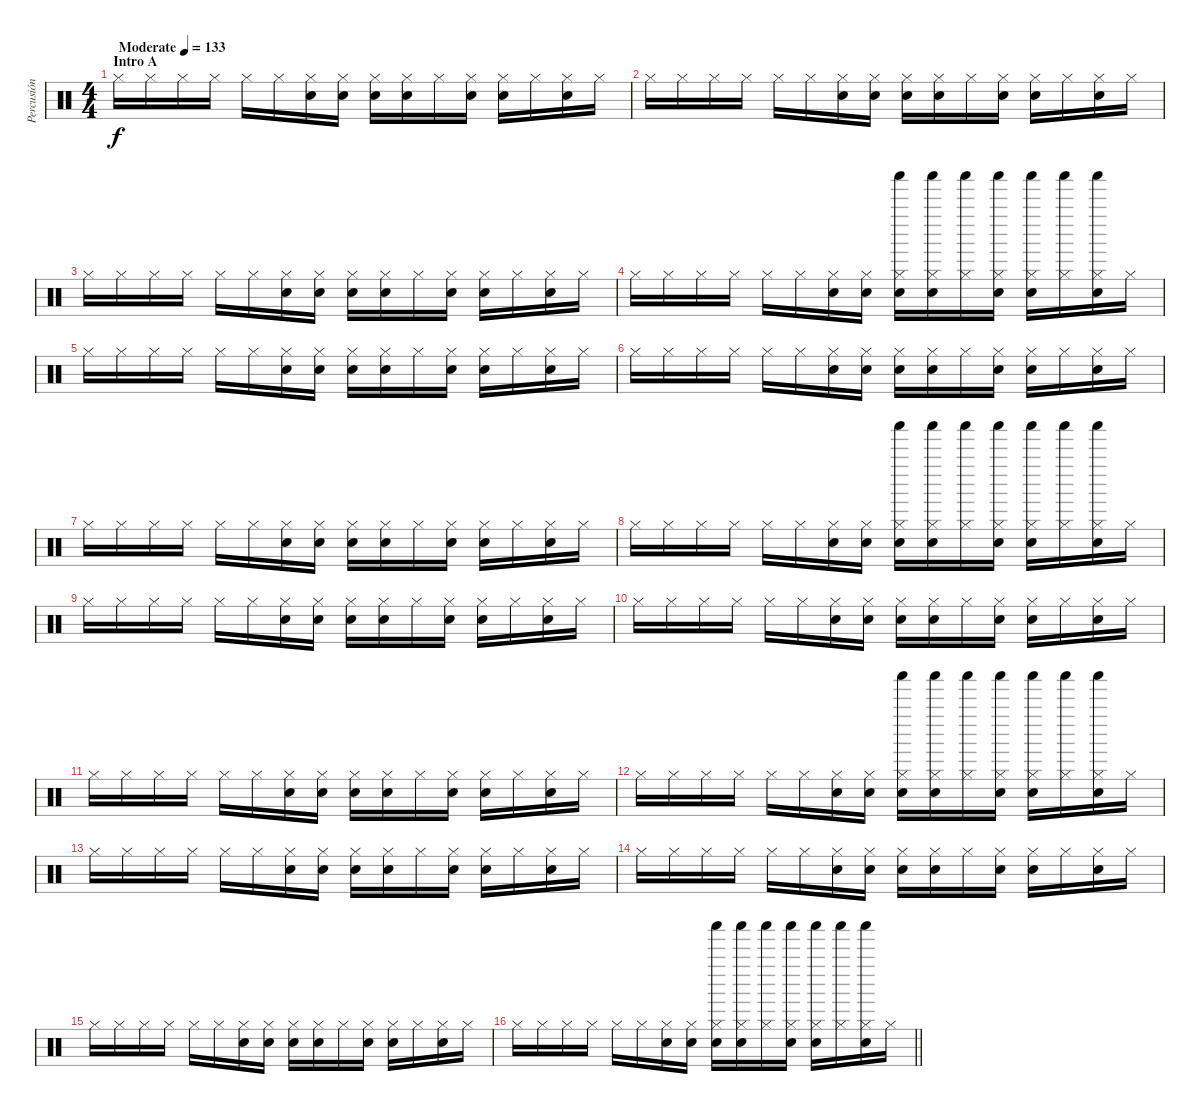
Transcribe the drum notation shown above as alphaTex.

\track ("Percusión" "Percusión") {instrument percussion}
\staff {score}
\articulation defaults
\ts (4 4)
\section ("" "Intro A")
\tempo (133 "Moderate")
\clef neutral
\ks c "Hi-Hat (closed)".16{dy f} "Hi-Hat (closed)".16 "Hi-Hat (closed)".16 "Hi-Hat (closed)".16 "Hi-Hat (closed)".16 "Hi-Hat (closed)".16
("Hi-Hat (closed)" "Electric Snare (hit)").16 ("Hi-Hat (closed)" "Electric Snare (hit)").16 ("Hi-Hat (closed)" "Electric Snare (hit)").16 ("Hi-Hat (closed)" "Electric Snare (hit)").16 "Hi-Hat (closed)".16 ("Hi-Hat (closed)" "Electric Snare (hit)").16 ("Hi-Hat (closed)" "Electric Snare (hit)").16 "Hi-Hat (closed)".16 ("Hi-Hat (closed)" "Electric Snare (hit)").16 "Hi-Hat (closed)".16 |
"Hi-Hat (closed)".16 "Hi-Hat (closed)".16 "Hi-Hat (closed)".16 "Hi-Hat (closed)".16 "Hi-Hat (closed)".16 "Hi-Hat (closed)".16 ("Hi-Hat (closed)" "Electric Snare (hit)").16 ("Hi-Hat (closed)" "Electric Snare (hit)").16 ("Hi-Hat (closed)" "Electric Snare (hit)").16 ("Hi-Hat (closed)" "Electric Snare (hit)").16 "Hi-Hat (closed)".16 ("Hi-Hat (closed)" "Electric Snare (hit)").16 ("Hi-Hat (closed)" "Electric Snare (hit)").16 "Hi-Hat (closed)".16 ("Hi-Hat (closed)" "Electric Snare (hit)").16 "Hi-Hat (closed)".16 |
"Hi-Hat (closed)".16 "Hi-Hat (closed)".16 "Hi-Hat (closed)".16 "Hi-Hat (closed)".16 "Hi-Hat (closed)".16 "Hi-Hat (closed)".16 ("Hi-Hat (closed)" "Electric Snare (hit)").16 ("Hi-Hat (closed)" "Electric Snare (hit)").16 ("Hi-Hat (closed)" "Electric Snare (hit)").16 ("Hi-Hat (closed)" "Electric Snare (hit)").16 "Hi-Hat (closed)".16 ("Hi-Hat (closed)" "Electric Snare (hit)").16 ("Hi-Hat (closed)" "Electric Snare (hit)").16 "Hi-Hat (closed)".16 ("Hi-Hat (closed)" "Electric Snare (hit)").16 "Hi-Hat (closed)".16 |
"Hi-Hat (closed)".16 "Hi-Hat (closed)".16 "Hi-Hat (closed)".16 "Hi-Hat (closed)".16 "Hi-Hat (closed)".16 "Hi-Hat (closed)".16 ("Hi-Hat (closed)" "Electric Snare (hit)").16 ("Hi-Hat (closed)" "Electric Snare (hit)").16 ("Hi-Hat (closed)" "Shaker (hit)" "Electric Snare (hit)").16 ("Hi-Hat (closed)" "Shaker (hit)" "Electric Snare (hit)").16 ("Hi-Hat (closed)" "Shaker (hit)").16 ("Hi-Hat (closed)" "Shaker (hit)" "Electric Snare (hit)").16 ("Hi-Hat (closed)" "Shaker (hit)" "Electric Snare (hit)").16 ("Hi-Hat (closed)" "Shaker (hit)").16 ("Hi-Hat (closed)" "Shaker (hit)" "Electric Snare (hit)").16 "Hi-Hat (closed)".16 |
"Hi-Hat (closed)".16 "Hi-Hat (closed)".16 "Hi-Hat (closed)".16 "Hi-Hat (closed)".16 "Hi-Hat (closed)".16 "Hi-Hat (closed)".16 ("Hi-Hat (closed)" "Electric Snare (hit)").16 ("Hi-Hat (closed)" "Electric Snare (hit)").16 ("Hi-Hat (closed)" "Electric Snare (hit)").16 ("Hi-Hat (closed)" "Electric Snare (hit)").16 "Hi-Hat (closed)".16 ("Hi-Hat (closed)" "Electric Snare (hit)").16 ("Hi-Hat (closed)" "Electric Snare (hit)").16 "Hi-Hat (closed)".16 ("Hi-Hat (closed)" "Electric Snare (hit)").16 "Hi-Hat (closed)".16 |
"Hi-Hat (closed)".16 "Hi-Hat (closed)".16 "Hi-Hat (closed)".16 "Hi-Hat (closed)".16 "Hi-Hat (closed)".16 "Hi-Hat (closed)".16 ("Hi-Hat (closed)" "Electric Snare (hit)").16 ("Hi-Hat (closed)" "Electric Snare (hit)").16 ("Hi-Hat (closed)" "Electric Snare (hit)").16 ("Hi-Hat (closed)" "Electric Snare (hit)").16 "Hi-Hat (closed)".16 ("Hi-Hat (closed)" "Electric Snare (hit)").16 ("Hi-Hat (closed)" "Electric Snare (hit)").16 "Hi-Hat (closed)".16 ("Hi-Hat (closed)" "Electric Snare (hit)").16 "Hi-Hat (closed)".16 |
"Hi-Hat (closed)".16 "Hi-Hat (closed)".16 "Hi-Hat (closed)".16 "Hi-Hat (closed)".16 "Hi-Hat (closed)".16 "Hi-Hat (closed)".16 ("Hi-Hat (closed)" "Electric Snare (hit)").16 ("Hi-Hat (closed)" "Electric Snare (hit)").16 ("Hi-Hat (closed)" "Electric Snare (hit)").16 ("Hi-Hat (closed)" "Electric Snare (hit)").16 "Hi-Hat (closed)".16 ("Hi-Hat (closed)" "Electric Snare (hit)").16 ("Hi-Hat (closed)" "Electric Snare (hit)").16 "Hi-Hat (closed)".16 ("Hi-Hat (closed)" "Electric Snare (hit)").16 "Hi-Hat (closed)".16 |
"Hi-Hat (closed)".16 "Hi-Hat (closed)".16 "Hi-Hat (closed)".16 "Hi-Hat (closed)".16 "Hi-Hat (closed)".16 "Hi-Hat (closed)".16 ("Hi-Hat (closed)" "Electric Snare (hit)").16 ("Hi-Hat (closed)" "Electric Snare (hit)").16 ("Hi-Hat (closed)" "Shaker (hit)" "Electric Snare (hit)").16 ("Hi-Hat (closed)" "Shaker (hit)" "Electric Snare (hit)").16 ("Hi-Hat (closed)" "Shaker (hit)").16 ("Hi-Hat (closed)" "Shaker (hit)" "Electric Snare (hit)").16 ("Hi-Hat (closed)" "Shaker (hit)" "Electric Snare (hit)").16 ("Hi-Hat (closed)" "Shaker (hit)").16 ("Hi-Hat (closed)" "Shaker (hit)" "Electric Snare (hit)").16 "Hi-Hat (closed)".16 |
"Hi-Hat (closed)".16 "Hi-Hat (closed)".16 "Hi-Hat (closed)".16 "Hi-Hat (closed)".16 "Hi-Hat (closed)".16 "Hi-Hat (closed)".16 ("Hi-Hat (closed)" "Electric Snare (hit)").16 ("Hi-Hat (closed)" "Electric Snare (hit)").16 ("Hi-Hat (closed)" "Electric Snare (hit)").16 ("Hi-Hat (closed)" "Electric Snare (hit)").16 "Hi-Hat (closed)".16 ("Hi-Hat (closed)" "Electric Snare (hit)").16 ("Hi-Hat (closed)" "Electric Snare (hit)").16 "Hi-Hat (closed)".16 ("Hi-Hat (closed)" "Electric Snare (hit)").16 "Hi-Hat (closed)".16 |
"Hi-Hat (closed)".16 "Hi-Hat (closed)".16 "Hi-Hat (closed)".16 "Hi-Hat (closed)".16 "Hi-Hat (closed)".16 "Hi-Hat (closed)".16 ("Hi-Hat (closed)" "Electric Snare (hit)").16 ("Hi-Hat (closed)" "Electric Snare (hit)").16 ("Hi-Hat (closed)" "Electric Snare (hit)").16 ("Hi-Hat (closed)" "Electric Snare (hit)").16 "Hi-Hat (closed)".16 ("Hi-Hat (closed)" "Electric Snare (hit)").16 ("Hi-Hat (closed)" "Electric Snare (hit)").16 "Hi-Hat (closed)".16 ("Hi-Hat (closed)" "Electric Snare (hit)").16 "Hi-Hat (closed)".16 |
"Hi-Hat (closed)".16 "Hi-Hat (closed)".16 "Hi-Hat (closed)".16 "Hi-Hat (closed)".16 "Hi-Hat (closed)".16 "Hi-Hat (closed)".16 ("Hi-Hat (closed)" "Electric Snare (hit)").16 ("Hi-Hat (closed)" "Electric Snare (hit)").16 ("Hi-Hat (closed)" "Electric Snare (hit)").16 ("Hi-Hat (closed)" "Electric Snare (hit)").16 "Hi-Hat (closed)".16 ("Hi-Hat (closed)" "Electric Snare (hit)").16 ("Hi-Hat (closed)" "Electric Snare (hit)").16 "Hi-Hat (closed)".16 ("Hi-Hat (closed)" "Electric Snare (hit)").16 "Hi-Hat (closed)".16 |
"Hi-Hat (closed)".16 "Hi-Hat (closed)".16 "Hi-Hat (closed)".16 "Hi-Hat (closed)".16 "Hi-Hat (closed)".16 "Hi-Hat (closed)".16 ("Hi-Hat (closed)" "Electric Snare (hit)").16 ("Hi-Hat (closed)" "Electric Snare (hit)").16 ("Hi-Hat (closed)" "Shaker (hit)" "Electric Snare (hit)").16 ("Hi-Hat (closed)" "Shaker (hit)" "Electric Snare (hit)").16 ("Hi-Hat (closed)" "Shaker (hit)").16 ("Hi-Hat (closed)" "Shaker (hit)" "Electric Snare (hit)").16 ("Hi-Hat (closed)" "Shaker (hit)" "Electric Snare (hit)").16 ("Hi-Hat (closed)" "Shaker (hit)").16 ("Hi-Hat (closed)" "Shaker (hit)" "Electric Snare (hit)").16 "Hi-Hat (closed)".16 |
"Hi-Hat (closed)".16 "Hi-Hat (closed)".16 "Hi-Hat (closed)".16 "Hi-Hat (closed)".16 "Hi-Hat (closed)".16 "Hi-Hat (closed)".16 ("Hi-Hat (closed)" "Electric Snare (hit)").16 ("Hi-Hat (closed)" "Electric Snare (hit)").16 ("Hi-Hat (closed)" "Electric Snare (hit)").16 ("Hi-Hat (closed)" "Electric Snare (hit)").16 "Hi-Hat (closed)".16 ("Hi-Hat (closed)" "Electric Snare (hit)").16 ("Hi-Hat (closed)" "Electric Snare (hit)").16 "Hi-Hat (closed)".16 ("Hi-Hat (closed)" "Electric Snare (hit)").16 "Hi-Hat (closed)".16 |
"Hi-Hat (closed)".16 "Hi-Hat (closed)".16 "Hi-Hat (closed)".16 "Hi-Hat (closed)".16 "Hi-Hat (closed)".16 "Hi-Hat (closed)".16 ("Hi-Hat (closed)" "Electric Snare (hit)").16 ("Hi-Hat (closed)" "Electric Snare (hit)").16 ("Hi-Hat (closed)" "Electric Snare (hit)").16 ("Hi-Hat (closed)" "Electric Snare (hit)").16 "Hi-Hat (closed)".16 ("Hi-Hat (closed)" "Electric Snare (hit)").16 ("Hi-Hat (closed)" "Electric Snare (hit)").16 "Hi-Hat (closed)".16 ("Hi-Hat (closed)" "Electric Snare (hit)").16 "Hi-Hat (closed)".16 |
"Hi-Hat (closed)".16 "Hi-Hat (closed)".16 "Hi-Hat (closed)".16 "Hi-Hat (closed)".16 "Hi-Hat (closed)".16 "Hi-Hat (closed)".16 ("Hi-Hat (closed)" "Electric Snare (hit)").16 ("Hi-Hat (closed)" "Electric Snare (hit)").16 ("Hi-Hat (closed)" "Electric Snare (hit)").16 ("Hi-Hat (closed)" "Electric Snare (hit)").16 "Hi-Hat (closed)".16 ("Hi-Hat (closed)" "Electric Snare (hit)").16 ("Hi-Hat (closed)" "Electric Snare (hit)").16 "Hi-Hat (closed)".16 ("Hi-Hat (closed)" "Electric Snare (hit)").16 "Hi-Hat (closed)".16 |
\barLineRight lightlight "Hi-Hat (closed)".16 "Hi-Hat (closed)".16 "Hi-Hat (closed)".16 "Hi-Hat (closed)".16 "Hi-Hat (closed)".16 "Hi-Hat (closed)".16
("Hi-Hat (closed)" "Electric Snare (hit)").16 ("Hi-Hat (closed)" "Electric Snare (hit)").16 ("Hi-Hat (closed)" "Shaker (hit)" "Electric Snare (hit)").16 ("Hi-Hat (closed)" "Shaker (hit)" "Electric Snare (hit)").16 ("Hi-Hat (closed)" "Shaker (hit)").16 ("Hi-Hat (closed)" "Shaker (hit)" "Electric Snare (hit)").16 ("Hi-Hat (closed)" "Shaker (hit)" "Electric Snare (hit)").16 ("Hi-Hat (closed)" "Shaker (hit)").16 ("Hi-Hat (closed)" "Shaker (hit)" "Electric Snare (hit)").16 "Hi-Hat (closed)".16
